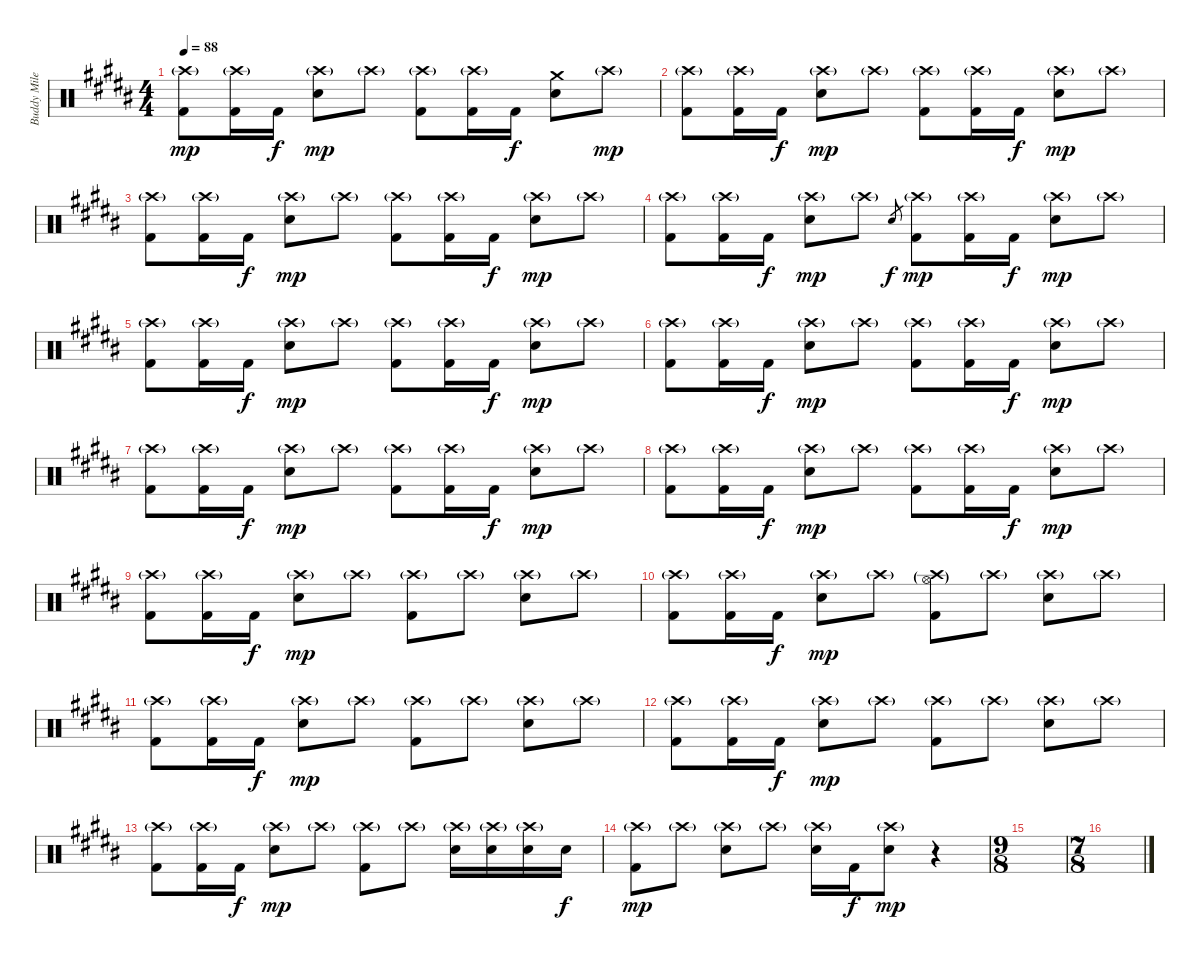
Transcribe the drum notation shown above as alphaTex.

\track ("Buddy Miles" "Buddy Mile") {instrument percussion}
\staff {score}
\articulation defaults
\ts (4 4)
\tempo 88
\clef neutral
\ks b
("Crash high (hit)"{g} "Kick (hit) 2").8{dy mp} ("Crash high (hit)"{g} "Kick (hit) 2").16 "Kick (hit) 2".16{dy f} ("Crash high (hit)"{g} "Electric Snare (hit)").8{dy mp} "Crash high (hit)"{g}.8 ("Crash high (hit)"{g} "Kick (hit) 2").8 ("Crash high (hit)"{g} "Kick (hit) 2").16 "Kick (hit) 2".16{dy f} ("Electric Snare (hit)" "Crash medium (hit)").8 "Crash high (hit)"{g}.8{dy mp} |
("Crash high (hit)"{g} "Kick (hit) 2").8 ("Crash high (hit)"{g} "Kick (hit) 2").16 "Kick (hit) 2".16{dy f} ("Crash high (hit)"{g} "Electric Snare (hit)").8{dy mp} "Crash high (hit)"{g}.8 ("Crash high (hit)"{g} "Kick (hit) 2").8 ("Crash high (hit)"{g} "Kick (hit) 2").16 "Kick (hit) 2".16{dy f} ("Crash high (hit)"{g} "Electric Snare (hit)").8{dy mp} "Crash high (hit)"{g}.8 |
("Crash high (hit)"{g} "Kick (hit) 2").8 ("Crash high (hit)"{g} "Kick (hit) 2").16 "Kick (hit) 2".16{dy f} ("Crash high (hit)"{g} "Electric Snare (hit)").8{dy mp} "Crash high (hit)"{g}.8 ("Crash high (hit)"{g} "Kick (hit) 2").8 ("Crash high (hit)"{g} "Kick (hit) 2").16 "Kick (hit) 2".16{dy f} ("Crash high (hit)"{g} "Electric Snare (hit)").8{dy mp} "Crash high (hit)"{g}.8 |
("Crash high (hit)"{g} "Kick (hit) 2").8 ("Crash high (hit)"{g} "Kick (hit) 2").16 "Kick (hit) 2".16{dy f} ("Crash high (hit)"{g} "Electric Snare (hit)").8{dy mp} "Crash high (hit)"{g}.8 "Electric Snare (hit)".8{gr dy f} ("Crash high (hit)"{g} "Kick (hit) 2").8{dy mp} ("Crash high (hit)"{g} "Kick (hit) 2").16 "Kick (hit) 2".16{dy f} ("Crash high (hit)"{g} "Electric Snare (hit)").8{dy mp} "Crash high (hit)"{g}.8 |
("Crash high (hit)"{g} "Kick (hit) 2").8 ("Crash high (hit)"{g} "Kick (hit) 2").16 "Kick (hit) 2".16{dy f} ("Crash high (hit)"{g} "Electric Snare (hit)").8{dy mp} "Crash high (hit)"{g}.8 ("Crash high (hit)"{g} "Kick (hit) 2").8 ("Crash high (hit)"{g} "Kick (hit) 2").16 "Kick (hit) 2".16{dy f} ("Crash high (hit)"{g} "Electric Snare (hit)").8{dy mp} "Crash high (hit)"{g}.8 |
("Crash high (hit)"{g} "Kick (hit) 2").8 ("Crash high (hit)"{g} "Kick (hit) 2").16 "Kick (hit) 2".16{dy f} ("Crash high (hit)"{g} "Electric Snare (hit)").8{dy mp} "Crash high (hit)"{g}.8 ("Crash high (hit)"{g} "Kick (hit) 2").8 ("Crash high (hit)"{g} "Kick (hit) 2").16 "Kick (hit) 2".16{dy f} ("Crash high (hit)"{g} "Electric Snare (hit)").8{dy mp} "Crash high (hit)"{g}.8 |
("Crash high (hit)"{g} "Kick (hit) 2").8 ("Crash high (hit)"{g} "Kick (hit) 2").16 "Kick (hit) 2".16{dy f} ("Crash high (hit)"{g} "Electric Snare (hit)").8{dy mp} "Crash high (hit)"{g}.8 ("Crash high (hit)"{g} "Kick (hit) 2").8 ("Crash high (hit)"{g} "Kick (hit) 2").16 "Kick (hit) 2".16{dy f} ("Crash high (hit)"{g} "Electric Snare (hit)").8{dy mp} "Crash high (hit)"{g}.8 |
("Crash high (hit)"{g} "Kick (hit) 2").8 ("Crash high (hit)"{g} "Kick (hit) 2").16 "Kick (hit) 2".16{dy f} ("Crash high (hit)"{g} "Electric Snare (hit)").8{dy mp} "Crash high (hit)"{g}.8 ("Crash high (hit)"{g} "Kick (hit) 2").8 ("Crash high (hit)"{g} "Kick (hit) 2").16 "Kick (hit) 2".16{dy f} ("Crash high (hit)"{g} "Electric Snare (hit)").8{dy mp} "Crash high (hit)"{g}.8 |
("Crash high (hit)"{g} "Kick (hit) 2").8 ("Crash high (hit)"{g} "Kick (hit) 2").16 "Kick (hit) 2".16{dy f} ("Crash high (hit)"{g} "Electric Snare (hit)").8{dy mp} "Crash high (hit)"{g}.8 ("Crash high (hit)"{g} "Kick (hit) 2").8 "Crash high (hit)"{g}.8 ("Crash high (hit)"{g} "Electric Snare (hit)").8 "Crash high (hit)"{g}.8 |
("Crash high (hit)"{g} "Kick (hit) 2").8 ("Crash high (hit)"{g} "Kick (hit) 2").16 "Kick (hit) 2".16{dy f} ("Crash high (hit)"{g} "Electric Snare (hit)").8{dy mp} "Crash high (hit)"{g}.8 ("Crash high (hit)"{g} "Hi-Hat (open)"{g} "Kick (hit) 2").8 "Crash high (hit)"{g}.8 ("Crash high (hit)"{g} "Electric Snare (hit)").8 "Crash high (hit)"{g}.8 |
("Crash high (hit)"{g} "Kick (hit) 2").8 ("Crash high (hit)"{g} "Kick (hit) 2").16 "Kick (hit) 2".16{dy f} ("Crash high (hit)"{g} "Electric Snare (hit)").8{dy mp} "Crash high (hit)"{g}.8 ("Crash high (hit)"{g} "Kick (hit) 2").8 "Crash high (hit)"{g}.8 ("Crash high (hit)"{g} "Electric Snare (hit)").8 "Crash high (hit)"{g}.8 |
("Crash high (hit)"{g} "Kick (hit) 2").8 ("Crash high (hit)"{g} "Kick (hit) 2").16 "Kick (hit) 2".16{dy f} ("Crash high (hit)"{g} "Electric Snare (hit)").8{dy mp} "Crash high (hit)"{g}.8 ("Crash high (hit)"{g} "Kick (hit) 2").8 "Crash high (hit)"{g}.8 ("Crash high (hit)"{g} "Electric Snare (hit)").8 "Crash high (hit)"{g}.8 |
("Crash high (hit)"{g} "Kick (hit) 2").8 ("Crash high (hit)"{g} "Kick (hit) 2").16 "Kick (hit) 2".16{dy f} ("Crash high (hit)"{g} "Electric Snare (hit)").8{dy mp} "Crash high (hit)"{g}.8 ("Crash high (hit)"{g} "Kick (hit) 2").8 "Crash high (hit)"{g}.8 ("Crash high (hit)"{g} "Electric Snare (hit)").16 ("Crash high (hit)"{g} "Electric Snare (hit)").16 ("Crash high (hit)"{g} "Electric Snare (hit)").16 "Electric Snare (hit)".16{dy f} |
("Crash high (hit)"{g} "Kick (hit) 2").8{dy mp} "Crash high (hit)"{g}.8 ("Crash high (hit)"{g} "Electric Snare (hit)").8 "Crash high (hit)"{g}.8 ("Crash high (hit)"{g} "Electric Snare (hit)").16 "Kick (hit) 2".16{dy f} ("Crash high (hit)"{g} "Electric Snare (hit)").8{dy mp} r.4 |
\ts (9 8)
|
\ts (7 8)
